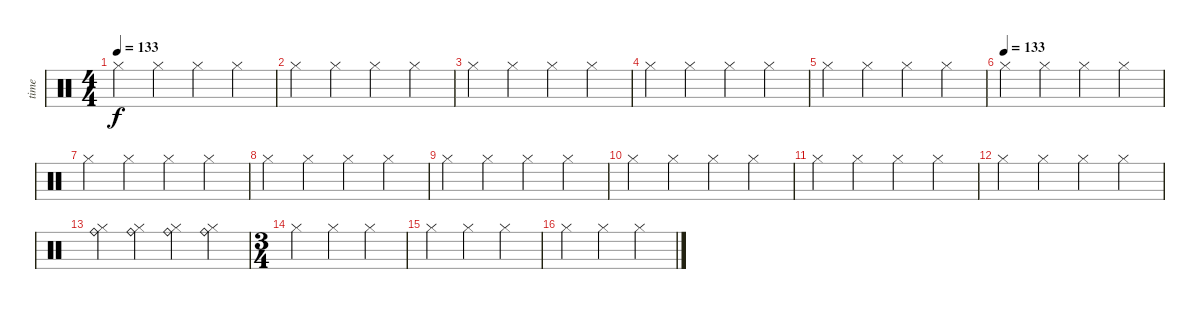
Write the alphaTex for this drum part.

\track ("time" "time") {instrument percussion}
\staff {score}
\articulation defaults
\ts (4 4)
\tempo 133
\clef neutral
\ks c "Hi-Hat (closed)".4{dy f} "Hi-Hat (closed)".4 "Hi-Hat (closed)".4 "Hi-Hat (closed)".4
|
"Hi-Hat (closed)".4 "Hi-Hat (closed)".4 "Hi-Hat (closed)".4 "Hi-Hat (closed)".4 |
"Hi-Hat (closed)".4 "Hi-Hat (closed)".4 "Hi-Hat (closed)".4 "Hi-Hat (closed)".4 |
"Hi-Hat (closed)".4 "Hi-Hat (closed)".4 "Hi-Hat (closed)".4 "Hi-Hat (closed)".4 |
"Hi-Hat (closed)".4 "Hi-Hat (closed)".4 "Hi-Hat (closed)".4 "Hi-Hat (closed)".4 |
\tempo (133)
"Hi-Hat (closed)".4 "Hi-Hat (closed)".4 "Hi-Hat (closed)".4 "Hi-Hat (closed)".4 |
"Hi-Hat (closed)".4 "Hi-Hat (closed)".4 "Hi-Hat (closed)".4 "Hi-Hat (closed)".4 |
"Hi-Hat (closed)".4 "Hi-Hat (closed)".4 "Hi-Hat (closed)".4 "Hi-Hat (closed)".4 |
"Hi-Hat (closed)".4 "Hi-Hat (closed)".4 "Hi-Hat (closed)".4 "Hi-Hat (closed)".4 |
"Hi-Hat (closed)".4 "Hi-Hat (closed)".4 "Hi-Hat (closed)".4 "Hi-Hat (closed)".4 |
"Hi-Hat (closed)".4 "Hi-Hat (closed)".4 "Hi-Hat (closed)".4 "Hi-Hat (closed)".4 |
"Hi-Hat (closed)".4 "Hi-Hat (closed)".4 "Hi-Hat (closed)".4 "Hi-Hat (closed)".4 |
("Ride (bell)" "Hi-Hat (closed)").4 ("Ride (bell)" "Hi-Hat (closed)").4 ("Ride (bell)" "Hi-Hat (closed)").4 ("Ride (bell)" "Hi-Hat (closed)").4 |
\ts (3 4)
"Hi-Hat (closed)".4 "Hi-Hat (closed)".4 "Hi-Hat (closed)".4 |
"Hi-Hat (closed)".4 "Hi-Hat (closed)".4 "Hi-Hat (closed)".4 |
"Hi-Hat (closed)".4 "Hi-Hat (closed)".4 "Hi-Hat (closed)".4
